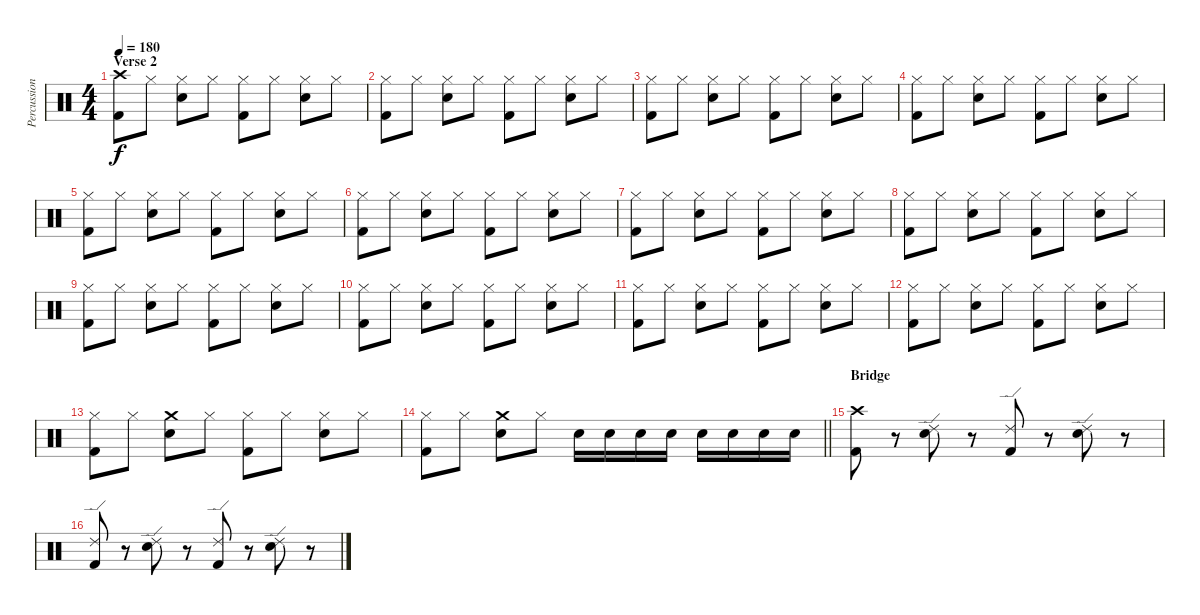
\track ("Percussion" "Percussion") {instrument percussion}
\staff {score}
\articulation defaults
\ts (4 4)
\section ("" "Verse 2")
\tempo 180
\clef neutral
\ks c
("Crash high (hit)" "Kick (hit) 2").8{dy f} "Hi-Hat (closed)".8 ("Hi-Hat (closed)" "Snare (hit) 2").8 "Hi-Hat (closed)".8 ("Hi-Hat (closed)" "Kick (hit) 2").8 "Hi-Hat (closed)".8 ("Hi-Hat (closed)" "Snare (hit) 2").8 "Hi-Hat (closed)".8 |
("Hi-Hat (closed)" "Kick (hit) 2").8 "Hi-Hat (closed)".8 ("Hi-Hat (closed)" "Snare (hit) 2").8 "Hi-Hat (closed)".8 ("Hi-Hat (closed)" "Kick (hit) 2").8 "Hi-Hat (closed)".8 ("Hi-Hat (closed)" "Snare (hit) 2").8 "Hi-Hat (closed)".8 |
("Hi-Hat (closed)" "Kick (hit) 2").8 "Hi-Hat (closed)".8 ("Hi-Hat (closed)" "Snare (hit) 2").8 "Hi-Hat (closed)".8 ("Hi-Hat (closed)" "Kick (hit) 2").8 "Hi-Hat (closed)".8 ("Hi-Hat (closed)" "Snare (hit) 2").8 "Hi-Hat (closed)".8 |
("Hi-Hat (closed)" "Kick (hit) 2").8 "Hi-Hat (closed)".8 ("Hi-Hat (closed)" "Snare (hit) 2").8 "Hi-Hat (closed)".8 ("Hi-Hat (closed)" "Kick (hit) 2").8 "Hi-Hat (closed)".8 ("Hi-Hat (closed)" "Snare (hit) 2").8 "Hi-Hat (closed)".8 |
("Hi-Hat (closed)" "Kick (hit) 2").8 "Hi-Hat (closed)".8 ("Hi-Hat (closed)" "Snare (hit) 2").8 "Hi-Hat (closed)".8 ("Hi-Hat (closed)" "Kick (hit) 2").8 "Hi-Hat (closed)".8 ("Hi-Hat (closed)" "Snare (hit) 2").8 "Hi-Hat (closed)".8 |
("Hi-Hat (closed)" "Kick (hit) 2").8 "Hi-Hat (closed)".8 ("Hi-Hat (closed)" "Snare (hit) 2").8 "Hi-Hat (closed)".8 ("Hi-Hat (closed)" "Kick (hit) 2").8 "Hi-Hat (closed)".8 ("Hi-Hat (closed)" "Snare (hit) 2").8 "Hi-Hat (closed)".8 |
("Hi-Hat (closed)" "Kick (hit) 2").8 "Hi-Hat (closed)".8 ("Hi-Hat (closed)" "Snare (hit) 2").8 "Hi-Hat (closed)".8 ("Hi-Hat (closed)" "Kick (hit) 2").8 "Hi-Hat (closed)".8 ("Hi-Hat (closed)" "Snare (hit) 2").8 "Hi-Hat (closed)".8 |
("Hi-Hat (closed)" "Kick (hit) 2").8 "Hi-Hat (closed)".8 ("Hi-Hat (closed)" "Snare (hit) 2").8 "Hi-Hat (closed)".8 ("Hi-Hat (closed)" "Kick (hit) 2").8 "Hi-Hat (closed)".8 ("Hi-Hat (closed)" "Snare (hit) 2").8 "Hi-Hat (closed)".8 |
("Hi-Hat (closed)" "Kick (hit) 2").8 "Hi-Hat (closed)".8 ("Hi-Hat (closed)" "Snare (hit) 2").8 "Hi-Hat (closed)".8 ("Hi-Hat (closed)" "Kick (hit) 2").8 "Hi-Hat (closed)".8 ("Hi-Hat (closed)" "Snare (hit) 2").8 "Hi-Hat (closed)".8 |
("Hi-Hat (closed)" "Kick (hit) 2").8 "Hi-Hat (closed)".8 ("Hi-Hat (closed)" "Snare (hit) 2").8 "Hi-Hat (closed)".8 ("Hi-Hat (closed)" "Kick (hit) 2").8 "Hi-Hat (closed)".8 ("Hi-Hat (closed)" "Snare (hit) 2").8 "Hi-Hat (closed)".8 |
("Hi-Hat (closed)" "Kick (hit) 2").8 "Hi-Hat (closed)".8 ("Hi-Hat (closed)" "Snare (hit) 2").8 "Hi-Hat (closed)".8 ("Hi-Hat (closed)" "Kick (hit) 2").8 "Hi-Hat (closed)".8 ("Hi-Hat (closed)" "Snare (hit) 2").8 "Hi-Hat (closed)".8 |
("Hi-Hat (closed)" "Kick (hit) 2").8 "Hi-Hat (closed)".8 ("Hi-Hat (closed)" "Snare (hit) 2").8 "Hi-Hat (closed)".8 ("Hi-Hat (closed)" "Kick (hit) 2").8 "Hi-Hat (closed)".8 ("Hi-Hat (closed)" "Snare (hit) 2").8 "Hi-Hat (closed)".8 |
("Hi-Hat (closed)" "Kick (hit) 2").8 "Hi-Hat (closed)".8 ("Crash medium (hit)" "Snare (hit) 2").8 "Hi-Hat (closed)".8 ("Hi-Hat (closed)" "Kick (hit) 2").8 "Hi-Hat (closed)".8 ("Hi-Hat (closed)" "Snare (hit) 2").8 "Hi-Hat (closed)".8 |
\barLineRight lightlight
("Hi-Hat (closed)" "Kick (hit) 2").8 "Hi-Hat (closed)".8 ("Crash medium (hit)" "Snare (hit) 2").8 "Hi-Hat (closed)".8 "Snare (hit) 2".16 "Snare (hit) 2".16 "Snare (hit) 2".16 "Snare (hit) 2".16 "Snare (hit) 2".16 "Snare (hit) 2".16 "Snare (hit) 2".16 "Snare (hit) 2".16 |
\section ("" "Bridge")
("Crash high (hit)" "Kick (hit) 2").8 r.8 ("Ride (edge) 2" "Snare (hit) 2").8 r.8 ("Ride (edge) 2" "Kick (hit) 2").8 r.8 ("Ride (edge) 2" "Snare (hit) 2").8 r.8 |
("Ride (edge) 2" "Kick (hit) 2").8 r.8 ("Ride (edge) 2" "Snare (hit) 2").8 r.8 ("Ride (edge) 2" "Kick (hit) 2").8 r.8 ("Ride (edge) 2" "Snare (hit) 2").8 r.8
